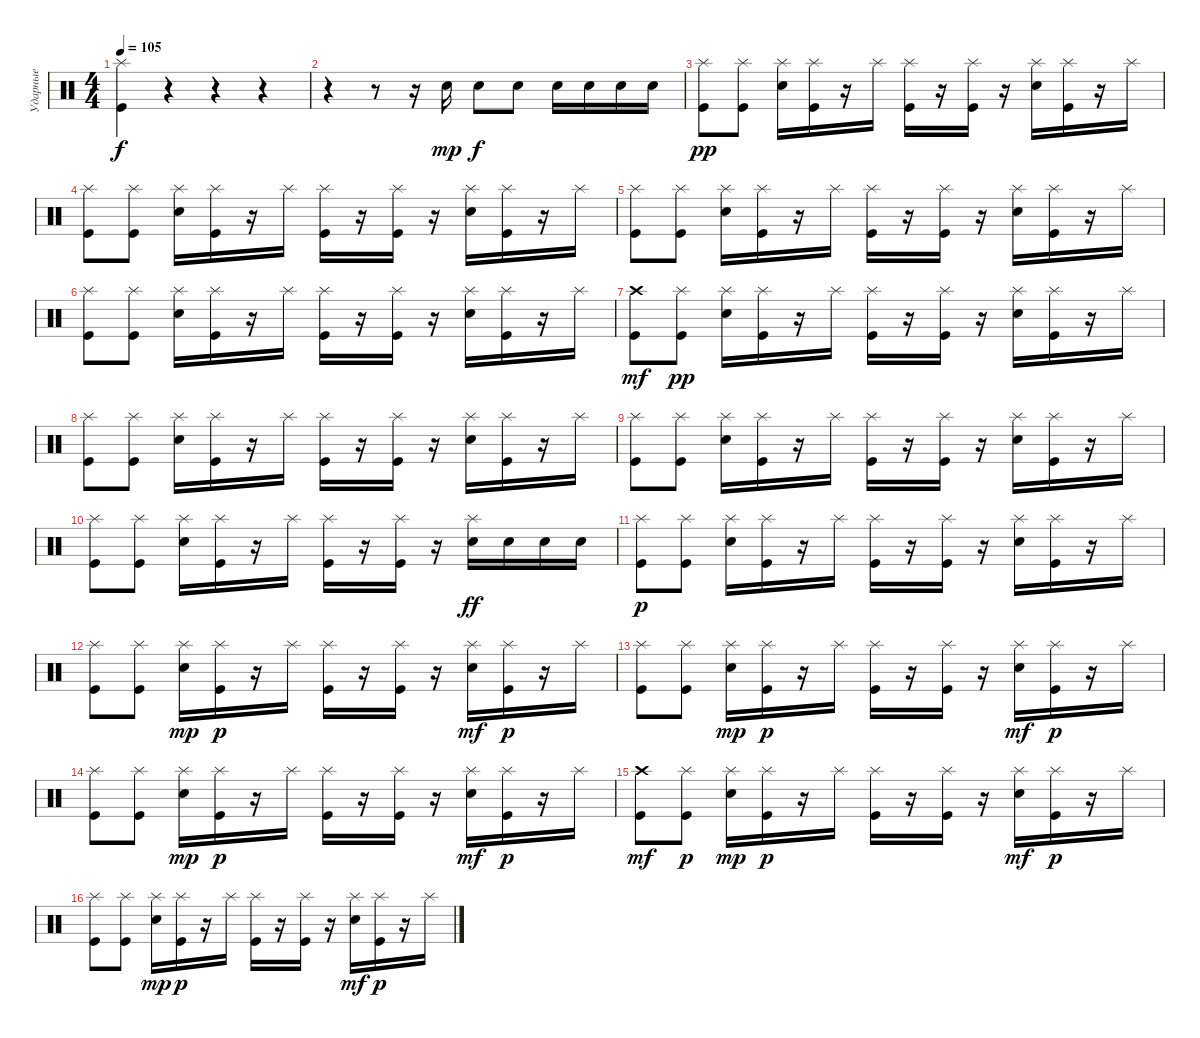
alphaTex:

\track ("Ударные" "Ударные") {instrument percussion}
\staff {score}
\articulation defaults
\ts (4 4)
\tempo 105
\clef neutral
\ks c
("Splash (hit)" "Kick (hit)").4{dy f} r.4 r.4 r.4 |
r.4 r.8 r.16 "Electric Snare (hit)".16{dy mp} "Electric Snare (hit)".8{dy f} "Electric Snare (hit)".8 "Electric Snare (hit)".16 "Electric Snare (hit)".16 "Electric Snare (hit)".16 "Electric Snare (hit)".16 |
("Splash (hit)" "Kick (hit)").8{dy pp} ("Splash (hit)" "Kick (hit)").8 ("Splash (hit)" "Electric Snare (hit)").16 ("Splash (hit)" "Kick (hit)").16 r.16 "Splash (hit)".16 ("Splash (hit)" "Kick (hit)").16 r.16 ("Splash (hit)" "Kick (hit)").16 r.16 ("Splash (hit)" "Electric Snare (hit)").16 ("Splash (hit)" "Kick (hit)").16 r.16 "Splash (hit)".16 |
("Splash (hit)" "Kick (hit)").8 ("Splash (hit)" "Kick (hit)").8 ("Splash (hit)" "Electric Snare (hit)").16 ("Splash (hit)" "Kick (hit)").16 r.16 "Splash (hit)".16 ("Splash (hit)" "Kick (hit)").16 r.16 ("Splash (hit)" "Kick (hit)").16 r.16 ("Splash (hit)" "Electric Snare (hit)").16 ("Splash (hit)" "Kick (hit)").16 r.16 "Splash (hit)".16 |
("Splash (hit)" "Kick (hit)").8 ("Splash (hit)" "Kick (hit)").8 ("Splash (hit)" "Electric Snare (hit)").16 ("Splash (hit)" "Kick (hit)").16 r.16 "Splash (hit)".16 ("Splash (hit)" "Kick (hit)").16 r.16 ("Splash (hit)" "Kick (hit)").16 r.16 ("Splash (hit)" "Electric Snare (hit)").16 ("Splash (hit)" "Kick (hit)").16 r.16 "Splash (hit)".16 |
("Splash (hit)" "Kick (hit)").8 ("Splash (hit)" "Kick (hit)").8 ("Splash (hit)" "Electric Snare (hit)").16 ("Splash (hit)" "Kick (hit)").16 r.16 "Splash (hit)".16 ("Splash (hit)" "Kick (hit)").16 r.16 ("Splash (hit)" "Kick (hit)").16 r.16 ("Splash (hit)" "Electric Snare (hit)").16 ("Splash (hit)" "Kick (hit)").16 r.16 "Splash (hit)".16 |
("Crash high (hit)" "Kick (hit)").8{dy mf} ("Splash (hit)" "Kick (hit)").8{dy pp} ("Splash (hit)" "Electric Snare (hit)").16 ("Splash (hit)" "Kick (hit)").16 r.16 "Splash (hit)".16 ("Splash (hit)" "Kick (hit)").16 r.16 ("Splash (hit)" "Kick (hit)").16 r.16 ("Splash (hit)" "Electric Snare (hit)").16 ("Splash (hit)" "Kick (hit)").16 r.16 "Splash (hit)".16 |
("Splash (hit)" "Kick (hit)").8 ("Splash (hit)" "Kick (hit)").8 ("Splash (hit)" "Electric Snare (hit)").16 ("Splash (hit)" "Kick (hit)").16 r.16 "Splash (hit)".16 ("Splash (hit)" "Kick (hit)").16 r.16 ("Splash (hit)" "Kick (hit)").16 r.16 ("Splash (hit)" "Electric Snare (hit)").16 ("Splash (hit)" "Kick (hit)").16 r.16 "Splash (hit)".16 |
("Splash (hit)" "Kick (hit)").8 ("Splash (hit)" "Kick (hit)").8 ("Splash (hit)" "Electric Snare (hit)").16 ("Splash (hit)" "Kick (hit)").16 r.16 "Splash (hit)".16 ("Splash (hit)" "Kick (hit)").16 r.16 ("Splash (hit)" "Kick (hit)").16 r.16 ("Splash (hit)" "Electric Snare (hit)").16 ("Splash (hit)" "Kick (hit)").16 r.16 "Splash (hit)".16 |
("Splash (hit)" "Kick (hit)").8 ("Splash (hit)" "Kick (hit)").8 ("Splash (hit)" "Electric Snare (hit)").16 ("Splash (hit)" "Kick (hit)").16 r.16 "Splash (hit)".16 ("Splash (hit)" "Kick (hit)").16 r.16 ("Splash (hit)" "Kick (hit)").16 r.16 ("Splash (hit)" "Electric Snare (hit)").16{dy ff} "Electric Snare (hit)".16 "Electric Snare (hit)".16 "Electric Snare (hit)".16 |
("Splash (hit)" "Kick (hit)").8{dy p} ("Splash (hit)" "Kick (hit)").8 ("Splash (hit)" "Electric Snare (hit)").16 ("Splash (hit)" "Kick (hit)").16 r.16 "Splash (hit)".16 ("Splash (hit)" "Kick (hit)").16 r.16 ("Splash (hit)" "Kick (hit)").16 r.16 ("Splash (hit)" "Electric Snare (hit)").16 ("Splash (hit)" "Kick (hit)").16 r.16 "Splash (hit)".16 |
("Splash (hit)" "Kick (hit)").8 ("Splash (hit)" "Kick (hit)").8 ("Splash (hit)" "Electric Snare (hit)").16{dy mp} ("Splash (hit)" "Kick (hit)").16{dy p} r.16 "Splash (hit)".16 ("Splash (hit)" "Kick (hit)").16 r.16 ("Splash (hit)" "Kick (hit)").16 r.16 ("Splash (hit)" "Electric Snare (hit)").16{dy mf} ("Splash (hit)" "Kick (hit)").16{dy p} r.16 "Splash (hit)".16 |
("Splash (hit)" "Kick (hit)").8 ("Splash (hit)" "Kick (hit)").8 ("Splash (hit)" "Electric Snare (hit)").16{dy mp} ("Splash (hit)" "Kick (hit)").16{dy p} r.16 "Splash (hit)".16 ("Splash (hit)" "Kick (hit)").16 r.16 ("Splash (hit)" "Kick (hit)").16 r.16 ("Splash (hit)" "Electric Snare (hit)").16{dy mf} ("Splash (hit)" "Kick (hit)").16{dy p} r.16 "Splash (hit)".16 |
("Splash (hit)" "Kick (hit)").8 ("Splash (hit)" "Kick (hit)").8 ("Splash (hit)" "Electric Snare (hit)").16{dy mp} ("Splash (hit)" "Kick (hit)").16{dy p} r.16 "Splash (hit)".16 ("Splash (hit)" "Kick (hit)").16 r.16 ("Splash (hit)" "Kick (hit)").16 r.16 ("Splash (hit)" "Electric Snare (hit)").16{dy mf} ("Splash (hit)" "Kick (hit)").16{dy p} r.16 "Splash (hit)".16 |
("Crash high (hit)" "Kick (hit)").8{dy mf} ("Splash (hit)" "Kick (hit)").8{dy p} ("Splash (hit)" "Electric Snare (hit)").16{dy mp} ("Splash (hit)" "Kick (hit)").16{dy p} r.16 "Splash (hit)".16 ("Splash (hit)" "Kick (hit)").16 r.16 ("Splash (hit)" "Kick (hit)").16 r.16 ("Splash (hit)" "Electric Snare (hit)").16{dy mf} ("Splash (hit)" "Kick (hit)").16{dy p} r.16 "Splash (hit)".16 |
("Splash (hit)" "Kick (hit)").8 ("Splash (hit)" "Kick (hit)").8 ("Splash (hit)" "Electric Snare (hit)").16{dy mp} ("Splash (hit)" "Kick (hit)").16{dy p} r.16 "Splash (hit)".16 ("Splash (hit)" "Kick (hit)").16 r.16 ("Splash (hit)" "Kick (hit)").16 r.16 ("Splash (hit)" "Electric Snare (hit)").16{dy mf} ("Splash (hit)" "Kick (hit)").16{dy p} r.16 "Splash (hit)".16
